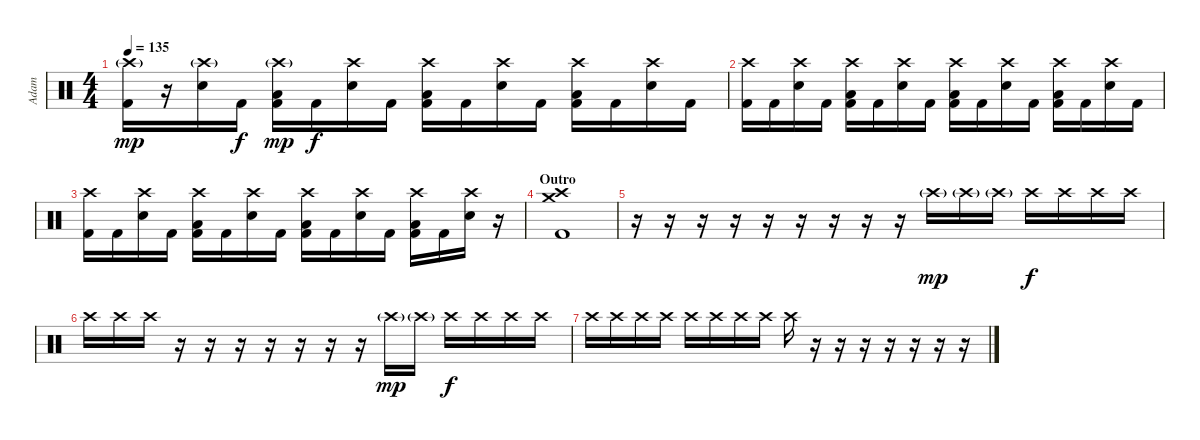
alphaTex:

\track ("Adam" "Adam") {instrument percussion}
\staff {score}
\articulation defaults
\ts (4 4)
\tempo 135
\clef neutral
\ks c
("Crash high (hit)"{g} "Kick (hit) 2").16{dy mp} r.16 ("Crash high (hit)"{g} "Electric Snare (hit)").16 "Kick (hit) 2".16{dy f} ("Crash high (hit)"{g} "Low Tom (hit)" "Kick (hit) 2").16{dy mp} "Kick (hit) 2".16{dy f} ("Crash high (hit)" "Electric Snare (hit)").16 "Kick (hit) 2".16 ("Crash high (hit)" "Low Tom (hit)" "Kick (hit) 2").16 "Kick (hit) 2".16 ("Crash high (hit)" "Electric Snare (hit)").16 "Kick (hit) 2".16 ("Crash high (hit)" "Low Tom (hit)" "Kick (hit) 2").16 "Kick (hit) 2".16 ("Crash high (hit)" "Electric Snare (hit)").16 "Kick (hit) 2".16 |
("Crash high (hit)" "Kick (hit) 2").16 "Kick (hit) 2".16 ("Crash high (hit)" "Electric Snare (hit)").16 "Kick (hit) 2".16 ("Crash high (hit)" "Low Tom (hit)" "Kick (hit) 2").16 "Kick (hit) 2".16 ("Crash high (hit)" "Electric Snare (hit)").16 "Kick (hit) 2".16 ("Crash high (hit)" "Low Tom (hit)" "Kick (hit) 2").16 "Kick (hit) 2".16 ("Crash high (hit)" "Electric Snare (hit)").16 "Kick (hit) 2".16 ("Crash high (hit)" "Low Tom (hit)" "Kick (hit) 2").16 "Kick (hit) 2".16 ("Crash high (hit)" "Electric Snare (hit)").16 "Kick (hit) 2".16 |
("Crash high (hit)" "Kick (hit) 2").16 "Kick (hit) 2".16 ("Crash high (hit)" "Electric Snare (hit)").16 "Kick (hit) 2".16 ("Crash high (hit)" "Low Tom (hit)" "Kick (hit) 2").16 "Kick (hit) 2".16 ("Crash high (hit)" "Electric Snare (hit)").16 "Kick (hit) 2".16 ("Crash high (hit)" "Low Tom (hit)" "Kick (hit) 2").16 "Kick (hit) 2".16 ("Crash high (hit)" "Electric Snare (hit)").16 "Kick (hit) 2".16 ("Crash high (hit)" "Low Tom (hit)" "Kick (hit) 2").16 "Kick (hit) 2".16 ("Crash high (hit)" "Electric Snare (hit)").16 r.16 |
\section ("" "Outro")
("Crash high (hit)" "Crash medium (hit)" "Kick (hit) 2").1 |
r.16{volume 7} r.16 r.16 r.16 r.16 r.16 r.16 r.16 r.16 "Crash high (hit)"{g}.16{dy mp} "Crash high (hit)"{g}.16 "Crash high (hit)"{g}.16 "Crash high (hit)".16{dy f} "Crash high (hit)".16 "Crash high (hit)".16 "Crash high (hit)".16 |
"Crash high (hit)".16 "Crash high (hit)".16 "Crash high (hit)".16 r.16 r.16 r.16 r.16 r.16 r.16 r.16 "Crash high (hit)"{g}.16{dy mp} "Crash high (hit)"{g}.16 "Crash high (hit)".16{dy f} "Crash high (hit)".16 "Crash high (hit)".16 "Crash high (hit)".16 |
"Crash high (hit)".16 "Crash high (hit)".16 "Crash high (hit)".16 "Crash high (hit)".16 "Crash high (hit)".16 "Crash high (hit)".16 "Crash high (hit)".16 "Crash high (hit)".16 "Crash high (hit)".16 r.16 r.16 r.16 r.16 r.16 r.16 r.16
